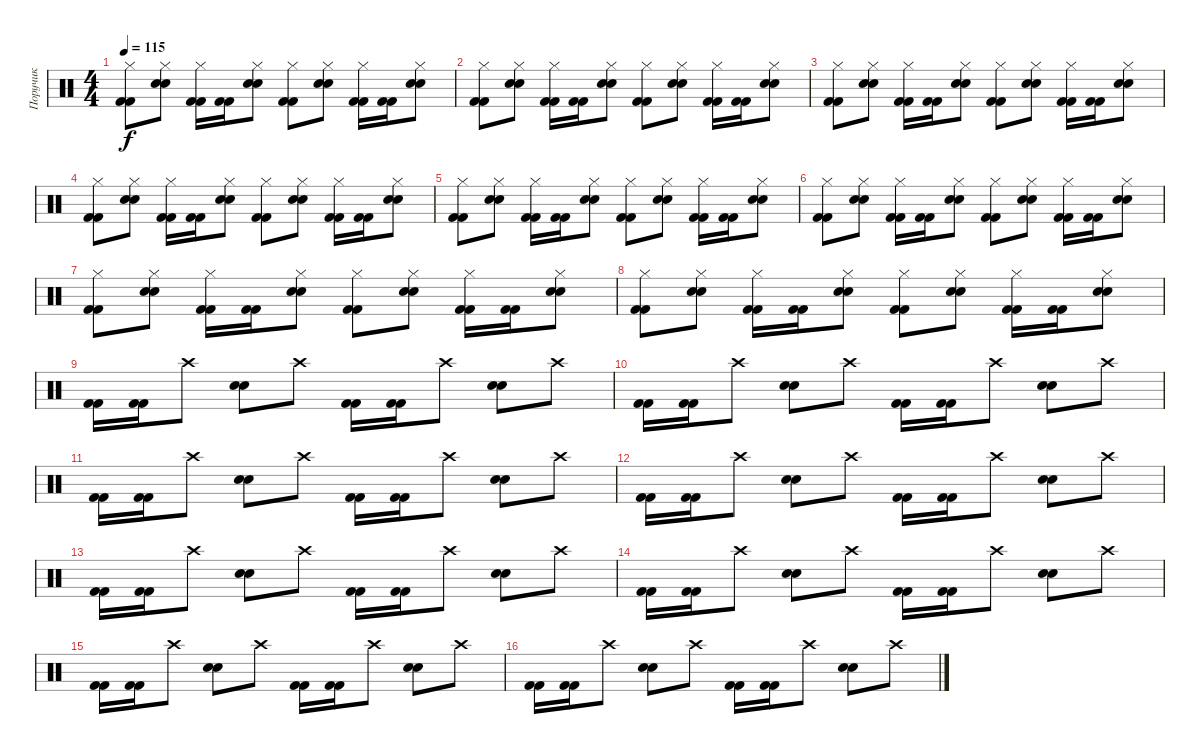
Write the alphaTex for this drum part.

\track ("Поручик" "Поручик") {instrument percussion}
\staff {score}
\articulation defaults
\ts (4 4)
\tempo 115
\clef neutral
\ks c
("Kick (hit) 2" "Hi-Hat (closed)" "Kick (hit) 2").8{dy f} ("Snare (hit) 2" "Hi-Hat (closed)" "Snare (hit) 2").8 ("Kick (hit) 2" "Hi-Hat (closed)" "Kick (hit) 2").16 ("Kick (hit) 2" "Kick (hit) 2").16 ("Snare (hit) 2" "Hi-Hat (closed)" "Snare (hit) 2").8 ("Kick (hit) 2" "Hi-Hat (closed)" "Kick (hit) 2").8 ("Snare (hit) 2" "Hi-Hat (closed)" "Snare (hit) 2").8 ("Kick (hit) 2" "Hi-Hat (closed)" "Kick (hit) 2").16 ("Kick (hit) 2" "Kick (hit) 2").16 ("Snare (hit) 2" "Hi-Hat (closed)" "Snare (hit) 2").8 |
("Kick (hit) 2" "Hi-Hat (closed)" "Kick (hit) 2").8 ("Snare (hit) 2" "Hi-Hat (closed)" "Snare (hit) 2").8 ("Kick (hit) 2" "Hi-Hat (closed)" "Kick (hit) 2").16 ("Kick (hit) 2" "Kick (hit) 2").16 ("Snare (hit) 2" "Hi-Hat (closed)" "Snare (hit) 2").8 ("Kick (hit) 2" "Hi-Hat (closed)" "Kick (hit) 2").8 ("Snare (hit) 2" "Hi-Hat (closed)" "Snare (hit) 2").8 ("Kick (hit) 2" "Hi-Hat (closed)" "Kick (hit) 2").16 ("Kick (hit) 2" "Kick (hit) 2").16 ("Snare (hit) 2" "Hi-Hat (closed)" "Snare (hit) 2").8 |
("Kick (hit) 2" "Hi-Hat (closed)" "Kick (hit) 2").8 ("Snare (hit) 2" "Hi-Hat (closed)" "Snare (hit) 2").8 ("Kick (hit) 2" "Hi-Hat (closed)" "Kick (hit) 2").16 ("Kick (hit) 2" "Kick (hit) 2").16 ("Snare (hit) 2" "Hi-Hat (closed)" "Snare (hit) 2").8 ("Kick (hit) 2" "Hi-Hat (closed)" "Kick (hit) 2").8 ("Snare (hit) 2" "Hi-Hat (closed)" "Snare (hit) 2").8 ("Kick (hit) 2" "Hi-Hat (closed)" "Kick (hit) 2").16 ("Kick (hit) 2" "Kick (hit) 2").16 ("Snare (hit) 2" "Hi-Hat (closed)" "Snare (hit) 2").8 |
("Kick (hit) 2" "Hi-Hat (closed)" "Kick (hit) 2").8 ("Snare (hit) 2" "Hi-Hat (closed)" "Snare (hit) 2").8 ("Kick (hit) 2" "Hi-Hat (closed)" "Kick (hit) 2").16 ("Kick (hit) 2" "Kick (hit) 2").16 ("Snare (hit) 2" "Hi-Hat (closed)" "Snare (hit) 2").8 ("Kick (hit) 2" "Hi-Hat (closed)" "Kick (hit) 2").8 ("Snare (hit) 2" "Hi-Hat (closed)" "Snare (hit) 2").8 ("Kick (hit) 2" "Hi-Hat (closed)" "Kick (hit) 2").16 ("Kick (hit) 2" "Kick (hit) 2").16 ("Snare (hit) 2" "Hi-Hat (closed)" "Snare (hit) 2").8 |
("Kick (hit) 2" "Hi-Hat (closed)" "Kick (hit) 2").8 ("Snare (hit) 2" "Hi-Hat (closed)" "Snare (hit) 2").8 ("Kick (hit) 2" "Hi-Hat (closed)" "Kick (hit) 2").16 ("Kick (hit) 2" "Kick (hit) 2").16 ("Snare (hit) 2" "Hi-Hat (closed)" "Snare (hit) 2").8 ("Kick (hit) 2" "Hi-Hat (closed)" "Kick (hit) 2").8 ("Snare (hit) 2" "Hi-Hat (closed)" "Snare (hit) 2").8 ("Kick (hit) 2" "Hi-Hat (closed)" "Kick (hit) 2").16 ("Kick (hit) 2" "Kick (hit) 2").16 ("Snare (hit) 2" "Hi-Hat (closed)" "Snare (hit) 2").8 |
("Kick (hit) 2" "Hi-Hat (closed)" "Kick (hit) 2").8 ("Snare (hit) 2" "Hi-Hat (closed)" "Snare (hit) 2").8 ("Kick (hit) 2" "Hi-Hat (closed)" "Kick (hit) 2").16 ("Kick (hit) 2" "Kick (hit) 2").16 ("Snare (hit) 2" "Hi-Hat (closed)" "Snare (hit) 2").8 ("Kick (hit) 2" "Hi-Hat (closed)" "Kick (hit) 2").8 ("Snare (hit) 2" "Hi-Hat (closed)" "Snare (hit) 2").8 ("Kick (hit) 2" "Hi-Hat (closed)" "Kick (hit) 2").16 ("Kick (hit) 2" "Kick (hit) 2").16 ("Snare (hit) 2" "Hi-Hat (closed)" "Snare (hit) 2").8 |
("Kick (hit) 2" "Hi-Hat (closed)" "Kick (hit) 2").8 ("Snare (hit) 2" "Hi-Hat (closed)" "Snare (hit) 2").8 ("Kick (hit) 2" "Hi-Hat (closed)" "Kick (hit) 2").16 ("Kick (hit) 2" "Kick (hit) 2").16 ("Snare (hit) 2" "Hi-Hat (closed)" "Snare (hit) 2").8 ("Kick (hit) 2" "Hi-Hat (closed)" "Kick (hit) 2").8 ("Snare (hit) 2" "Hi-Hat (closed)" "Snare (hit) 2").8 ("Kick (hit) 2" "Hi-Hat (closed)" "Kick (hit) 2").16 ("Kick (hit) 2" "Kick (hit) 2").16 ("Snare (hit) 2" "Hi-Hat (closed)" "Snare (hit) 2").8 |
("Kick (hit) 2" "Hi-Hat (closed)" "Kick (hit) 2").8 ("Snare (hit) 2" "Hi-Hat (closed)" "Snare (hit) 2").8 ("Kick (hit) 2" "Hi-Hat (closed)" "Kick (hit) 2").16 ("Kick (hit) 2" "Kick (hit) 2").16 ("Snare (hit) 2" "Hi-Hat (closed)" "Snare (hit) 2").8 ("Kick (hit) 2" "Hi-Hat (closed)" "Kick (hit) 2").8 ("Snare (hit) 2" "Hi-Hat (closed)" "Snare (hit) 2").8 ("Kick (hit) 2" "Hi-Hat (closed)" "Kick (hit) 2").16 ("Kick (hit) 2" "Kick (hit) 2").16 ("Snare (hit) 2" "Hi-Hat (closed)" "Snare (hit) 2").8 |
("Kick (hit) 2" "Kick (hit) 2").16 ("Kick (hit) 2" "Kick (hit) 2").16 "Crash high (hit)".8 ("Snare (hit) 2" "Snare (hit) 2").8 "Crash high (hit)".8 ("Kick (hit) 2" "Kick (hit) 2").16 ("Kick (hit) 2" "Kick (hit) 2").16 "Crash high (hit)".8 ("Snare (hit) 2" "Snare (hit) 2").8 "Crash high (hit)".8 |
("Kick (hit) 2" "Kick (hit) 2").16 ("Kick (hit) 2" "Kick (hit) 2").16 "Crash high (hit)".8 ("Snare (hit) 2" "Snare (hit) 2").8 "Crash high (hit)".8 ("Kick (hit) 2" "Kick (hit) 2").16 ("Kick (hit) 2" "Kick (hit) 2").16 "Crash high (hit)".8 ("Snare (hit) 2" "Snare (hit) 2").8 "Crash high (hit)".8 |
("Kick (hit) 2" "Kick (hit) 2").16 ("Kick (hit) 2" "Kick (hit) 2").16 "Crash high (hit)".8 ("Snare (hit) 2" "Snare (hit) 2").8 "Crash high (hit)".8 ("Kick (hit) 2" "Kick (hit) 2").16 ("Kick (hit) 2" "Kick (hit) 2").16 "Crash high (hit)".8 ("Snare (hit) 2" "Snare (hit) 2").8 "Crash high (hit)".8 |
("Kick (hit) 2" "Kick (hit) 2").16 ("Kick (hit) 2" "Kick (hit) 2").16 "Crash high (hit)".8 ("Snare (hit) 2" "Snare (hit) 2").8 "Crash high (hit)".8 ("Kick (hit) 2" "Kick (hit) 2").16 ("Kick (hit) 2" "Kick (hit) 2").16 "Crash high (hit)".8 ("Snare (hit) 2" "Snare (hit) 2").8 "Crash high (hit)".8 |
("Kick (hit) 2" "Kick (hit) 2").16 ("Kick (hit) 2" "Kick (hit) 2").16 "Crash high (hit)".8 ("Snare (hit) 2" "Snare (hit) 2").8 "Crash high (hit)".8 ("Kick (hit) 2" "Kick (hit) 2").16 ("Kick (hit) 2" "Kick (hit) 2").16 "Crash high (hit)".8 ("Snare (hit) 2" "Snare (hit) 2").8 "Crash high (hit)".8 |
("Kick (hit) 2" "Kick (hit) 2").16 ("Kick (hit) 2" "Kick (hit) 2").16 "Crash high (hit)".8 ("Snare (hit) 2" "Snare (hit) 2").8 "Crash high (hit)".8 ("Kick (hit) 2" "Kick (hit) 2").16 ("Kick (hit) 2" "Kick (hit) 2").16 "Crash high (hit)".8 ("Snare (hit) 2" "Snare (hit) 2").8 "Crash high (hit)".8 |
("Kick (hit) 2" "Kick (hit) 2").16 ("Kick (hit) 2" "Kick (hit) 2").16 "Crash high (hit)".8 ("Snare (hit) 2" "Snare (hit) 2").8 "Crash high (hit)".8 ("Kick (hit) 2" "Kick (hit) 2").16 ("Kick (hit) 2" "Kick (hit) 2").16 "Crash high (hit)".8 ("Snare (hit) 2" "Snare (hit) 2").8 "Crash high (hit)".8 |
("Kick (hit) 2" "Kick (hit) 2").16 ("Kick (hit) 2" "Kick (hit) 2").16 "Crash high (hit)".8 ("Snare (hit) 2" "Snare (hit) 2").8 "Crash high (hit)".8 ("Kick (hit) 2" "Kick (hit) 2").16 ("Kick (hit) 2" "Kick (hit) 2").16 "Crash high (hit)".8 ("Snare (hit) 2" "Snare (hit) 2").8 "Crash high (hit)".8
